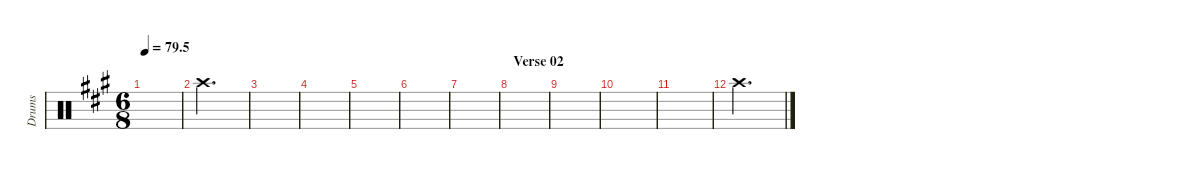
\defaultSystemsLayout 4
\hideDynamics
\bracketExtendMode nobrackets
\otherSystemsTrackNameOrientation horizontal
\track ("Left crash" "Drums") {instrument percussion}
\staff {score}
\articulation defaults
\ts (6 8)
\tempo
79.5
\accidentals auto
\clef neutral
\ottava regular
\simile none
\scale
0.333333
\ks a
|
\scale
0.333333 "Crash high (hit)"{acc forcenatural}.2{d} |
\scale
0.333333 |
\scale
0.333333 |
\scale
0.333333 |
\scale
0.333333 |
\scale
0.333333 |
\section ("" "Verse 02")
\scale
0.333333 |
\scale
0.333333 |
\scale
0.333333 |
\scale
0.333333 |
\scale
0.333333 "Crash high (hit)"{acc forcenatural}.2{d} |
\scale
0.333333 |
\scale
0.333333 |
\scale
0.333333 |
\scale
0.333333
